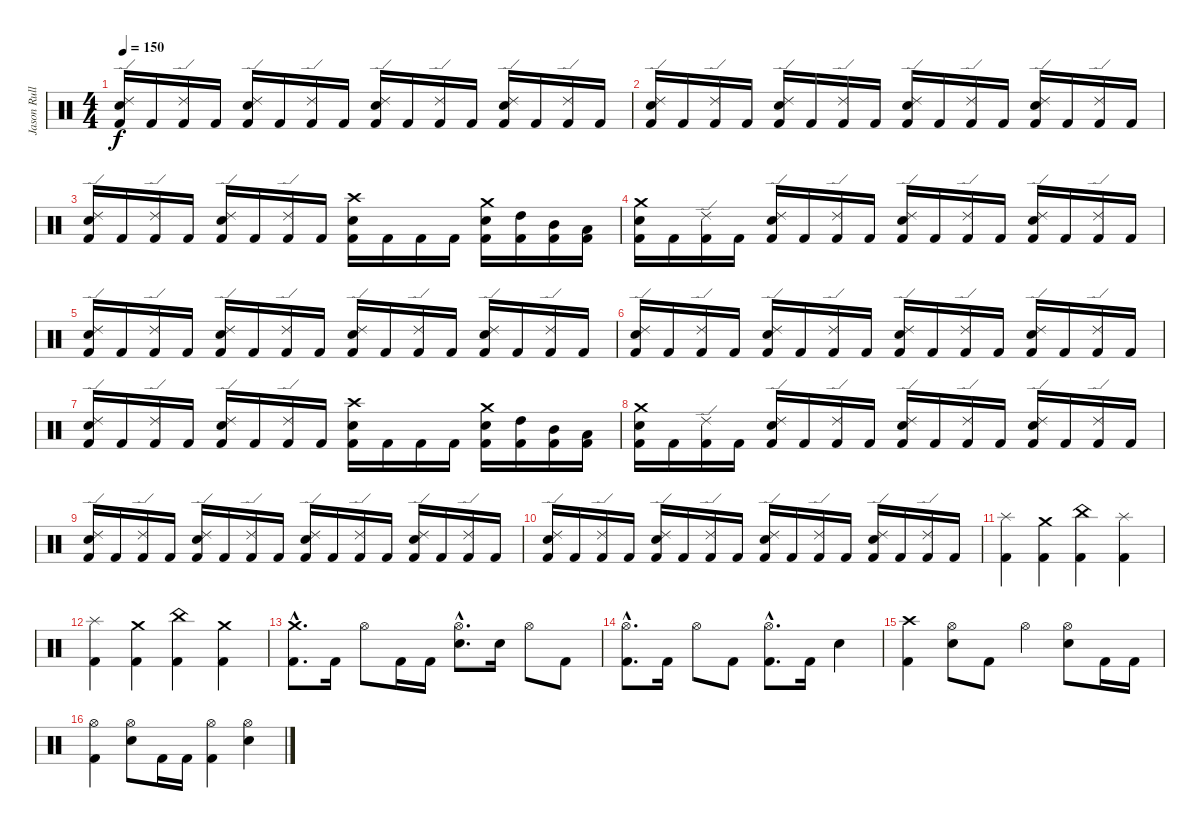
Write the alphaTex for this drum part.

\track ("Jason Rullo" "Jason Rull") {instrument percussion}
\staff {score}
\articulation defaults
\ts (4 4)
\tempo 150
\clef neutral
\ks c
("Ride (edge) 2" "Electric Snare (hit)" "Kick (hit) 2").16{dy f} "Kick (hit) 2".16 ("Ride (edge) 2" "Kick (hit) 2").16 "Kick (hit) 2".16 ("Ride (edge) 2" "Electric Snare (hit)" "Kick (hit) 2").16 "Kick (hit) 2".16 ("Ride (edge) 2" "Kick (hit) 2").16 "Kick (hit) 2".16 ("Ride (edge) 2" "Electric Snare (hit)" "Kick (hit) 2").16 "Kick (hit) 2".16 ("Ride (edge) 2" "Kick (hit) 2").16 "Kick (hit) 2".16 ("Ride (edge) 2" "Electric Snare (hit)" "Kick (hit) 2").16 "Kick (hit) 2".16 ("Ride (edge) 2" "Kick (hit) 2").16 "Kick (hit) 2".16 |
("Ride (edge) 2" "Electric Snare (hit)" "Kick (hit) 2").16 "Kick (hit) 2".16 ("Ride (edge) 2" "Kick (hit) 2").16 "Kick (hit) 2".16 ("Ride (edge) 2" "Electric Snare (hit)" "Kick (hit) 2").16 "Kick (hit) 2".16 ("Ride (edge) 2" "Kick (hit) 2").16 "Kick (hit) 2".16 ("Ride (edge) 2" "Electric Snare (hit)" "Kick (hit) 2").16 "Kick (hit) 2".16 ("Ride (edge) 2" "Kick (hit) 2").16 "Kick (hit) 2".16 ("Ride (edge) 2" "Electric Snare (hit)" "Kick (hit) 2").16 "Kick (hit) 2".16 ("Ride (edge) 2" "Kick (hit) 2").16 "Kick (hit) 2".16 |
("Ride (edge) 2" "Electric Snare (hit)" "Kick (hit) 2").16 "Kick (hit) 2".16 ("Ride (edge) 2" "Kick (hit) 2").16 "Kick (hit) 2".16 ("Ride (edge) 2" "Electric Snare (hit)" "Kick (hit) 2").16 "Kick (hit) 2".16 ("Ride (edge) 2" "Kick (hit) 2").16 "Kick (hit) 2".16 ("Crash high (hit)" "Electric Snare (hit)" "Kick (hit) 2").16 "Kick (hit) 2".16 "Kick (hit) 2".16 "Kick (hit) 2".16 ("Crash medium (hit)" "Electric Snare (hit)" "Kick (hit) 2").16 ("High Tom (hit)" "Kick (hit) 2").16 ("Mid Tom (hit)" "Kick (hit) 2").16 ("Low Tom (hit)" "Kick (hit) 2").16 |
("Crash medium (hit)" "Electric Snare (hit)" "Kick (hit) 2").16 "Kick (hit) 2".16 ("Ride (edge) 2" "Kick (hit) 2").16 "Kick (hit) 2".16 ("Ride (edge) 2" "Electric Snare (hit)" "Kick (hit) 2").16 "Kick (hit) 2".16 ("Ride (edge) 2" "Kick (hit) 2").16 "Kick (hit) 2".16 ("Ride (edge) 2" "Electric Snare (hit)" "Kick (hit) 2").16 "Kick (hit) 2".16 ("Ride (edge) 2" "Kick (hit) 2").16 "Kick (hit) 2".16 ("Ride (edge) 2" "Electric Snare (hit)" "Kick (hit) 2").16 "Kick (hit) 2".16 ("Ride (edge) 2" "Kick (hit) 2").16 "Kick (hit) 2".16 |
("Ride (edge) 2" "Electric Snare (hit)" "Kick (hit) 2").16 "Kick (hit) 2".16 ("Ride (edge) 2" "Kick (hit) 2").16 "Kick (hit) 2".16 ("Ride (edge) 2" "Electric Snare (hit)" "Kick (hit) 2").16 "Kick (hit) 2".16 ("Ride (edge) 2" "Kick (hit) 2").16 "Kick (hit) 2".16 ("Ride (edge) 2" "Electric Snare (hit)" "Kick (hit) 2").16 "Kick (hit) 2".16 ("Ride (edge) 2" "Kick (hit) 2").16 "Kick (hit) 2".16 ("Ride (edge) 2" "Electric Snare (hit)" "Kick (hit) 2").16 "Kick (hit) 2".16 ("Ride (edge) 2" "Kick (hit) 2").16 "Kick (hit) 2".16 |
("Ride (edge) 2" "Electric Snare (hit)" "Kick (hit) 2").16 "Kick (hit) 2".16 ("Ride (edge) 2" "Kick (hit) 2").16 "Kick (hit) 2".16 ("Ride (edge) 2" "Electric Snare (hit)" "Kick (hit) 2").16 "Kick (hit) 2".16 ("Ride (edge) 2" "Kick (hit) 2").16 "Kick (hit) 2".16 ("Ride (edge) 2" "Electric Snare (hit)" "Kick (hit) 2").16 "Kick (hit) 2".16 ("Ride (edge) 2" "Kick (hit) 2").16 "Kick (hit) 2".16 ("Ride (edge) 2" "Electric Snare (hit)" "Kick (hit) 2").16 "Kick (hit) 2".16 ("Ride (edge) 2" "Kick (hit) 2").16 "Kick (hit) 2".16 |
("Ride (edge) 2" "Electric Snare (hit)" "Kick (hit) 2").16 "Kick (hit) 2".16 ("Ride (edge) 2" "Kick (hit) 2").16 "Kick (hit) 2".16 ("Ride (edge) 2" "Electric Snare (hit)" "Kick (hit) 2").16 "Kick (hit) 2".16 ("Ride (edge) 2" "Kick (hit) 2").16 "Kick (hit) 2".16 ("Crash high (hit)" "Electric Snare (hit)" "Kick (hit) 2").16 "Kick (hit) 2".16 "Kick (hit) 2".16 "Kick (hit) 2".16 ("Crash medium (hit)" "Electric Snare (hit)" "Kick (hit) 2").16 ("High Tom (hit)" "Kick (hit) 2").16 ("Mid Tom (hit)" "Kick (hit) 2").16 ("Low Tom (hit)" "Kick (hit) 2").16 |
("Crash medium (hit)" "Electric Snare (hit)" "Kick (hit) 2").16 "Kick (hit) 2".16 ("Ride (edge) 2" "Kick (hit) 2").16 "Kick (hit) 2".16 ("Ride (edge) 2" "Electric Snare (hit)" "Kick (hit) 2").16 "Kick (hit) 2".16 ("Ride (edge) 2" "Kick (hit) 2").16 "Kick (hit) 2".16 ("Ride (edge) 2" "Electric Snare (hit)" "Kick (hit) 2").16 "Kick (hit) 2".16 ("Ride (edge) 2" "Kick (hit) 2").16 "Kick (hit) 2".16 ("Ride (edge) 2" "Electric Snare (hit)" "Kick (hit) 2").16 "Kick (hit) 2".16 ("Ride (edge) 2" "Kick (hit) 2").16 "Kick (hit) 2".16 |
("Ride (edge) 2" "Electric Snare (hit)" "Kick (hit) 2").16 "Kick (hit) 2".16 ("Ride (edge) 2" "Kick (hit) 2").16 "Kick (hit) 2".16 ("Ride (edge) 2" "Electric Snare (hit)" "Kick (hit) 2").16 "Kick (hit) 2".16 ("Ride (edge) 2" "Kick (hit) 2").16 "Kick (hit) 2".16 ("Ride (edge) 2" "Electric Snare (hit)" "Kick (hit) 2").16 "Kick (hit) 2".16 ("Ride (edge) 2" "Kick (hit) 2").16 "Kick (hit) 2".16 ("Ride (edge) 2" "Electric Snare (hit)" "Kick (hit) 2").16 "Kick (hit) 2".16 ("Ride (edge) 2" "Kick (hit) 2").16 "Kick (hit) 2".16 |
("Ride (edge) 2" "Electric Snare (hit)" "Kick (hit) 2").16 "Kick (hit) 2".16 ("Ride (edge) 2" "Kick (hit) 2").16 "Kick (hit) 2".16 ("Ride (edge) 2" "Electric Snare (hit)" "Kick (hit) 2").16 "Kick (hit) 2".16 ("Ride (edge) 2" "Kick (hit) 2").16 "Kick (hit) 2".16 ("Ride (edge) 2" "Electric Snare (hit)" "Kick (hit) 2").16 "Kick (hit) 2".16 ("Ride (edge) 2" "Kick (hit) 2").16 "Kick (hit) 2".16 ("Ride (edge) 2" "Electric Snare (hit)" "Kick (hit) 2").16 "Kick (hit) 2".16 ("Ride (edge) 2" "Kick (hit) 2").16 "Kick (hit) 2".16 |
("Splash (hit)" "Kick (hit) 2").4 ("Crash medium (hit)" "Kick (hit) 2").4 ("China (hit)" "Kick (hit) 2").4 ("Splash (hit)" "Kick (hit) 2").4 |
("Splash (hit)" "Kick (hit) 2").4 ("Crash medium (hit)" "Kick (hit) 2").4 ("China (hit)" "Kick (hit) 2").4 ("Crash medium (hit)" "Kick (hit) 2").4 |
("Crash medium (hit)" "Kick (hit) 2"{hac}).8{d} "Kick (hit) 2".16 "Hi-Hat (open)".8 "Kick (hit) 2".16 "Kick (hit) 2".16 ("Hi-Hat (open)"{hac} "Electric Snare (hit)"{hac}).8{d} "Electric Snare (hit)".16 "Hi-Hat (open)".8 "Kick (hit) 2".8 |
("Hi-Hat (open)" "Kick (hit) 2"{hac}).8{d} "Kick (hit) 2".16 "Hi-Hat (open)".8 "Kick (hit) 2".8 ("Hi-Hat (open)" "Kick (hit) 2"{hac}).8{d} "Kick (hit) 2".16 "Electric Snare (hit)".4 |
("Crash high (hit)" "Kick (hit) 2").4 ("Hi-Hat (open)" "Electric Snare (hit)").8 "Kick (hit) 2".8 "Hi-Hat (open)".4 ("Hi-Hat (open)" "Electric Snare (hit)").8 "Kick (hit) 2".16 "Kick (hit) 2".16 |
("Hi-Hat (open)" "Kick (hit) 2").4 ("Hi-Hat (open)" "Electric Snare (hit)").8 "Kick (hit) 2".16 "Kick (hit) 2".16 ("Hi-Hat (open)" "Kick (hit) 2").4 ("Hi-Hat (open)" "Electric Snare (hit)").4
